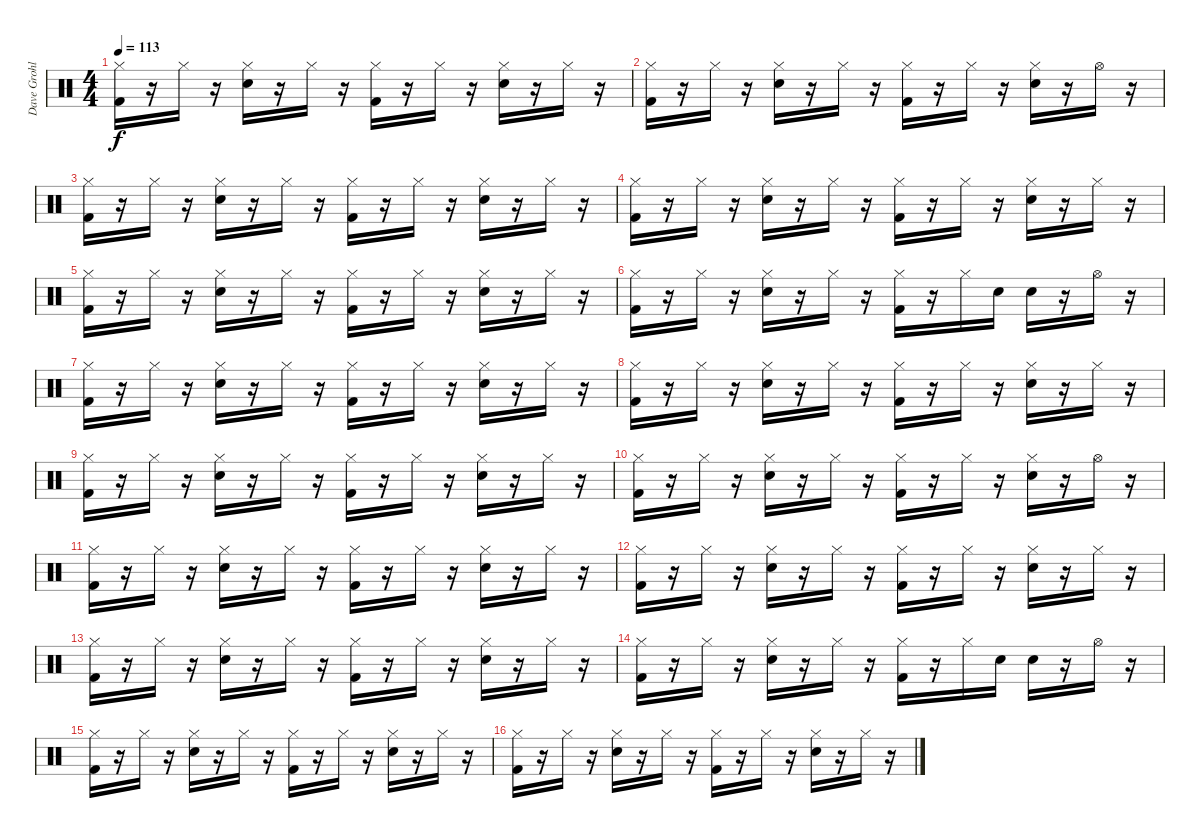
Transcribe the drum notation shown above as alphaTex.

\track ("Dave Grohl" "Dave Grohl") {instrument percussion}
\staff {score}
\articulation defaults
\ts (4 4)
\tempo 113
\clef neutral
\ks c
("Hi-Hat (closed)" "Kick (hit) 2").16{dy f} r.16 "Hi-Hat (closed)".16 r.16 ("Hi-Hat (closed)" "Electric Snare (hit)").16 r.16 "Hi-Hat (closed)".16 r.16 ("Hi-Hat (closed)" "Kick (hit) 2").16 r.16 "Hi-Hat (closed)".16 r.16 ("Hi-Hat (closed)" "Electric Snare (hit)").16 r.16 "Hi-Hat (closed)".16 r.16 |
("Hi-Hat (closed)" "Kick (hit) 2").16 r.16 "Hi-Hat (closed)".16 r.16 ("Hi-Hat (closed)" "Electric Snare (hit)").16 r.16 "Hi-Hat (closed)".16 r.16 ("Hi-Hat (closed)" "Kick (hit) 2").16 r.16 "Hi-Hat (closed)".16 r.16 ("Hi-Hat (closed)" "Electric Snare (hit)").16 r.16 "Hi-Hat (open)".16 r.16 |
("Hi-Hat (closed)" "Kick (hit) 2").16 r.16 "Hi-Hat (closed)".16 r.16 ("Hi-Hat (closed)" "Electric Snare (hit)").16 r.16 "Hi-Hat (closed)".16 r.16 ("Hi-Hat (closed)" "Kick (hit) 2").16 r.16 "Hi-Hat (closed)".16 r.16 ("Hi-Hat (closed)" "Electric Snare (hit)").16 r.16 "Hi-Hat (closed)".16 r.16 |
("Hi-Hat (closed)" "Kick (hit) 2").16 r.16 "Hi-Hat (closed)".16 r.16 ("Hi-Hat (closed)" "Electric Snare (hit)").16 r.16 "Hi-Hat (closed)".16 r.16 ("Hi-Hat (closed)" "Kick (hit) 2").16 r.16 "Hi-Hat (closed)".16 r.16 ("Hi-Hat (closed)" "Electric Snare (hit)").16 r.16 "Hi-Hat (closed)".16 r.16 |
("Hi-Hat (closed)" "Kick (hit) 2").16 r.16 "Hi-Hat (closed)".16 r.16 ("Hi-Hat (closed)" "Electric Snare (hit)").16 r.16 "Hi-Hat (closed)".16 r.16 ("Hi-Hat (closed)" "Kick (hit) 2").16 r.16 "Hi-Hat (closed)".16 r.16 ("Hi-Hat (closed)" "Electric Snare (hit)").16 r.16 "Hi-Hat (closed)".16 r.16 |
("Hi-Hat (closed)" "Kick (hit) 2").16 r.16 "Hi-Hat (closed)".16 r.16 ("Hi-Hat (closed)" "Electric Snare (hit)").16 r.16 "Hi-Hat (closed)".16 r.16 ("Hi-Hat (closed)" "Kick (hit) 2").16 r.16 "Hi-Hat (closed)".16 "Electric Snare (hit)".16 "Electric Snare (hit)".16 r.16 "Hi-Hat (open)".16 r.16 |
("Hi-Hat (closed)" "Kick (hit) 2").16 r.16 "Hi-Hat (closed)".16 r.16 ("Hi-Hat (closed)" "Electric Snare (hit)").16 r.16 "Hi-Hat (closed)".16 r.16 ("Hi-Hat (closed)" "Kick (hit) 2").16 r.16 "Hi-Hat (closed)".16 r.16 ("Hi-Hat (closed)" "Electric Snare (hit)").16 r.16 "Hi-Hat (closed)".16 r.16 |
("Hi-Hat (closed)" "Kick (hit) 2").16 r.16 "Hi-Hat (closed)".16 r.16 ("Hi-Hat (closed)" "Electric Snare (hit)").16 r.16 "Hi-Hat (closed)".16 r.16 ("Hi-Hat (closed)" "Kick (hit) 2").16 r.16 "Hi-Hat (closed)".16 r.16 ("Hi-Hat (closed)" "Electric Snare (hit)").16 r.16 "Hi-Hat (closed)".16 r.16 |
("Hi-Hat (closed)" "Kick (hit) 2").16 r.16 "Hi-Hat (closed)".16 r.16 ("Hi-Hat (closed)" "Electric Snare (hit)").16 r.16 "Hi-Hat (closed)".16 r.16 ("Hi-Hat (closed)" "Kick (hit) 2").16 r.16 "Hi-Hat (closed)".16 r.16 ("Hi-Hat (closed)" "Electric Snare (hit)").16 r.16 "Hi-Hat (closed)".16 r.16 |
("Hi-Hat (closed)" "Kick (hit) 2").16 r.16 "Hi-Hat (closed)".16 r.16 ("Hi-Hat (closed)" "Electric Snare (hit)").16 r.16 "Hi-Hat (closed)".16 r.16 ("Hi-Hat (closed)" "Kick (hit) 2").16 r.16 "Hi-Hat (closed)".16 r.16 ("Hi-Hat (closed)" "Electric Snare (hit)").16 r.16 "Hi-Hat (open)".16 r.16 |
("Hi-Hat (closed)" "Kick (hit) 2").16 r.16 "Hi-Hat (closed)".16 r.16 ("Hi-Hat (closed)" "Electric Snare (hit)").16 r.16 "Hi-Hat (closed)".16 r.16 ("Hi-Hat (closed)" "Kick (hit) 2").16 r.16 "Hi-Hat (closed)".16 r.16 ("Hi-Hat (closed)" "Electric Snare (hit)").16 r.16 "Hi-Hat (closed)".16 r.16 |
("Hi-Hat (closed)" "Kick (hit) 2").16 r.16 "Hi-Hat (closed)".16 r.16 ("Hi-Hat (closed)" "Electric Snare (hit)").16 r.16 "Hi-Hat (closed)".16 r.16 ("Hi-Hat (closed)" "Kick (hit) 2").16 r.16 "Hi-Hat (closed)".16 r.16 ("Hi-Hat (closed)" "Electric Snare (hit)").16 r.16 "Hi-Hat (closed)".16 r.16 |
("Hi-Hat (closed)" "Kick (hit) 2").16 r.16 "Hi-Hat (closed)".16 r.16 ("Hi-Hat (closed)" "Electric Snare (hit)").16 r.16 "Hi-Hat (closed)".16 r.16 ("Hi-Hat (closed)" "Kick (hit) 2").16 r.16 "Hi-Hat (closed)".16 r.16 ("Hi-Hat (closed)" "Electric Snare (hit)").16 r.16 "Hi-Hat (closed)".16 r.16 |
("Hi-Hat (closed)" "Kick (hit) 2").16 r.16 "Hi-Hat (closed)".16 r.16 ("Hi-Hat (closed)" "Electric Snare (hit)").16 r.16 "Hi-Hat (closed)".16 r.16 ("Hi-Hat (closed)" "Kick (hit) 2").16 r.16 "Hi-Hat (closed)".16 "Electric Snare (hit)".16 "Electric Snare (hit)".16 r.16 "Hi-Hat (open)".16 r.16 |
("Hi-Hat (closed)" "Kick (hit) 2").16 r.16 "Hi-Hat (closed)".16 r.16 ("Hi-Hat (closed)" "Electric Snare (hit)").16 r.16 "Hi-Hat (closed)".16 r.16 ("Hi-Hat (closed)" "Kick (hit) 2").16 r.16 "Hi-Hat (closed)".16 r.16 ("Hi-Hat (closed)" "Electric Snare (hit)").16 r.16 "Hi-Hat (closed)".16 r.16 |
("Hi-Hat (closed)" "Kick (hit) 2").16 r.16 "Hi-Hat (closed)".16 r.16 ("Hi-Hat (closed)" "Electric Snare (hit)").16 r.16 "Hi-Hat (closed)".16 r.16 ("Hi-Hat (closed)" "Kick (hit) 2").16 r.16 "Hi-Hat (closed)".16 r.16 ("Hi-Hat (closed)" "Electric Snare (hit)").16 r.16 "Hi-Hat (closed)".16 r.16
